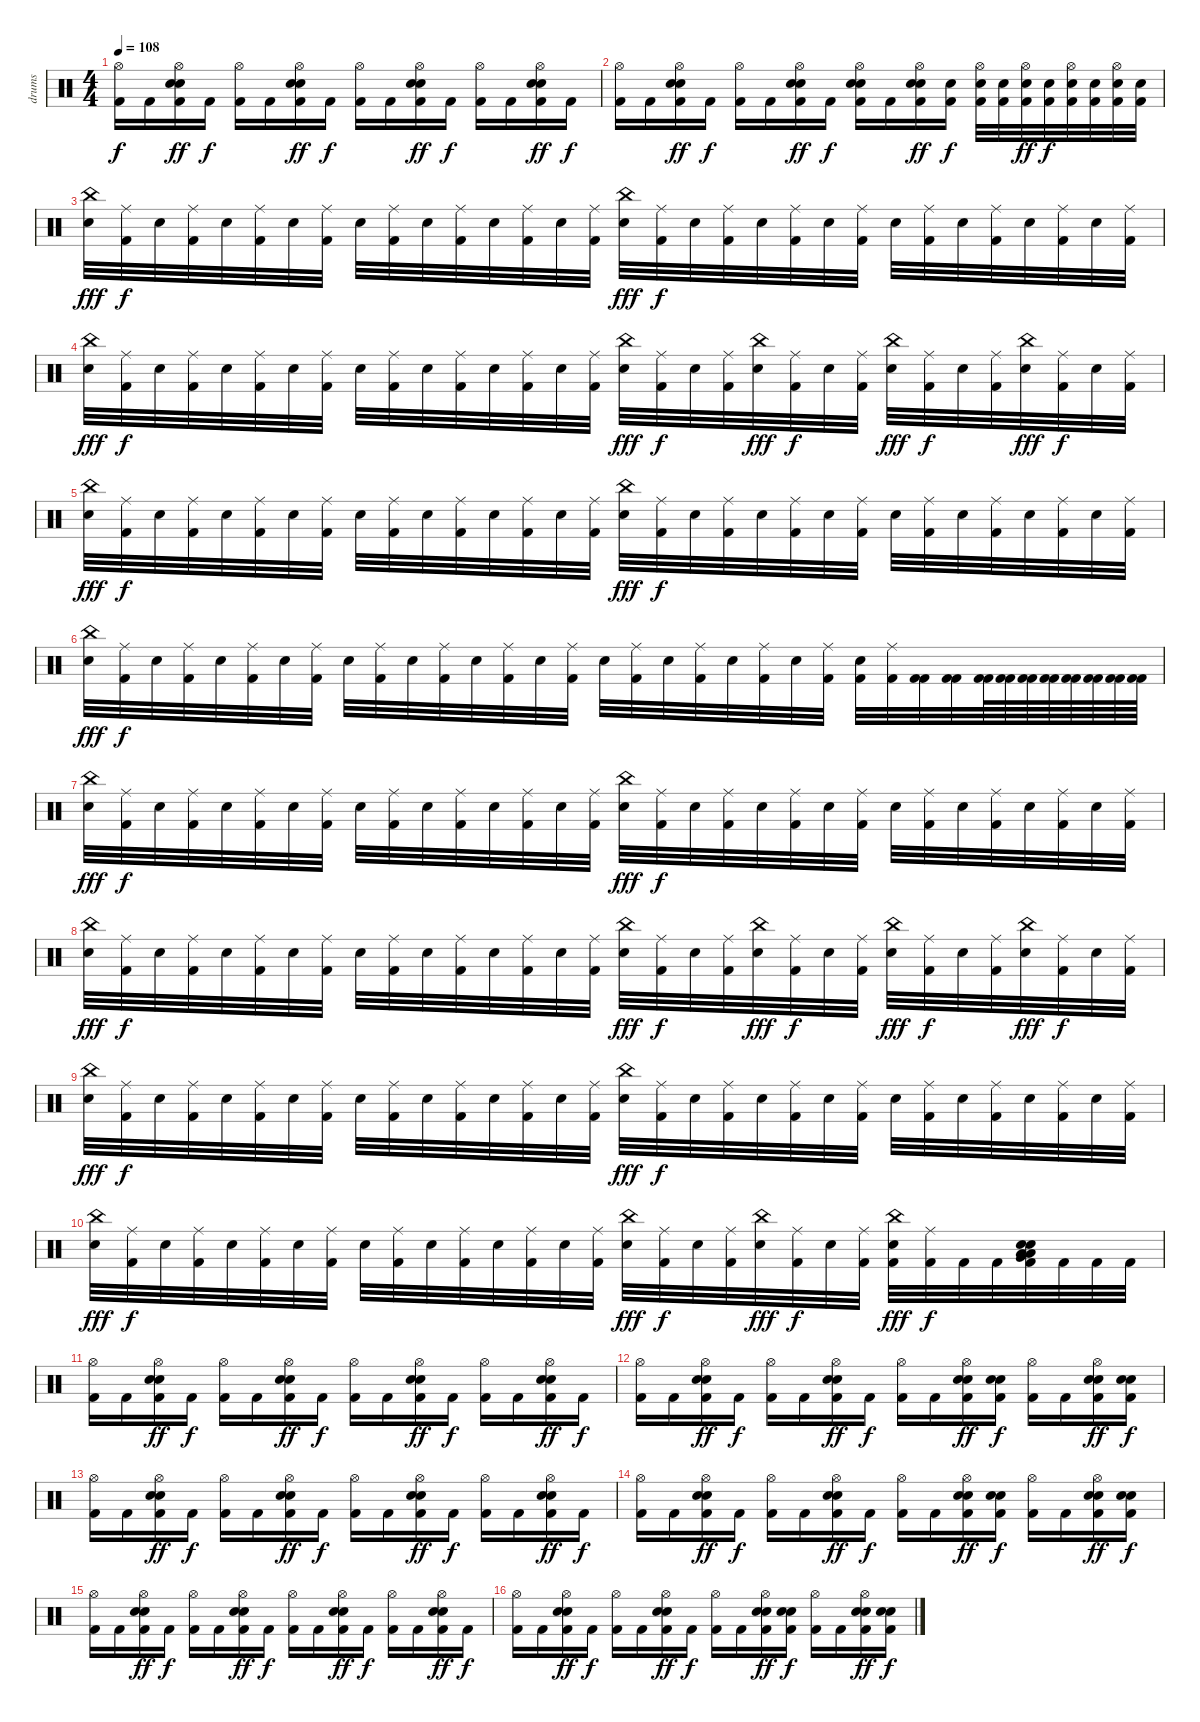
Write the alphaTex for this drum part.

\track ("drums" "drums") {instrument percussion}
\staff {score}
\articulation defaults
\ts (4 4)
\tempo 108
\clef neutral
\ks c
("Hi-Hat (open)" "Kick (hit) 2").16{dy f} "Kick (hit) 2".16 ("Electric Snare (hit)" "Hand Clap (hit)" "Hi-Hat (open)" "Kick (hit) 2").16{dy ff} "Kick (hit) 2".16{dy f} ("Hi-Hat (open)" "Kick (hit) 2").16 "Kick (hit) 2".16 ("Electric Snare (hit)" "Hand Clap (hit)" "Hi-Hat (open)" "Kick (hit) 2").16{dy ff} "Kick (hit) 2".16{dy f} ("Hi-Hat (open)" "Kick (hit) 2").16 "Kick (hit) 2".16 ("Electric Snare (hit)" "Hand Clap (hit)" "Hi-Hat (open)" "Kick (hit) 2").16{dy ff} "Kick (hit) 2".16{dy f} ("Hi-Hat (open)" "Kick (hit) 2").16 "Kick (hit) 2".16 ("Electric Snare (hit)" "Hand Clap (hit)" "Hi-Hat (open)" "Kick (hit) 2").16{dy ff} "Kick (hit) 2".16{dy f} |
("Hi-Hat (open)" "Kick (hit) 2").16 "Kick (hit) 2".16 ("Electric Snare (hit)" "Hand Clap (hit)" "Hi-Hat (open)" "Kick (hit) 2").16{dy ff} "Kick (hit) 2".16{dy f} ("Hi-Hat (open)" "Kick (hit) 2").16 "Kick (hit) 2".16 ("Electric Snare (hit)" "Hand Clap (hit)" "Hi-Hat (open)" "Kick (hit) 2").16{dy ff} "Kick (hit) 2".16{dy f} ("Electric Snare (hit)" "Snare (hit) 2" "Hi-Hat (open)" "Kick (hit) 2").16 "Kick (hit) 2".16 ("Electric Snare (hit)" "Hand Clap (hit)" "Hi-Hat (open)" "Kick (hit) 2").16{dy ff} ("Electric Snare (hit)" "Kick (hit) 2").16{dy f} ("Electric Snare (hit)" "Hi-Hat (open)" "Kick (hit) 2").32 ("Electric Snare (hit)" "Kick (hit) 2").32 ("Electric Snare (hit)" "Hi-Hat (open)" "Kick (hit) 2").32{dy ff} ("Electric Snare (hit)" "Kick (hit) 2").32{dy f} ("Electric Snare (hit)" "Hi-Hat (open)" "Kick (hit) 2").32 ("Electric Snare (hit)" "Kick (hit) 2").32 ("Electric Snare (hit)" "Hi-Hat (open)" "Kick (hit) 2").32 ("Electric Snare (hit)" "Kick (hit) 2").32 |
("Electric Snare (hit)" "China (hit)").32{dy fff} ("Ride (middle)" "Kick (hit) 2").32{dy f} "Electric Snare (hit)".32 ("Ride (middle)" "Kick (hit) 2").32 "Electric Snare (hit)".32 ("Ride (middle)" "Kick (hit) 2").32 "Electric Snare (hit)".32 ("Ride (middle)" "Kick (hit) 2").32 "Electric Snare (hit)".32 ("Ride (middle)" "Kick (hit) 2").32 "Electric Snare (hit)".32 ("Ride (middle)" "Kick (hit) 2").32 "Electric Snare (hit)".32 ("Ride (middle)" "Kick (hit) 2").32 "Electric Snare (hit)".32 ("Ride (middle)" "Kick (hit) 2").32 ("Electric Snare (hit)" "China (hit)").32{dy fff} ("Ride (middle)" "Kick (hit) 2").32{dy f} "Electric Snare (hit)".32 ("Ride (middle)" "Kick (hit) 2").32 "Electric Snare (hit)".32 ("Ride (middle)" "Kick (hit) 2").32 "Electric Snare (hit)".32 ("Ride (middle)" "Kick (hit) 2").32 "Electric Snare (hit)".32 ("Ride (middle)" "Kick (hit) 2").32 "Electric Snare (hit)".32 ("Ride (middle)" "Kick (hit) 2").32 "Electric Snare (hit)".32 ("Ride (middle)" "Kick (hit) 2").32 "Electric Snare (hit)".32 ("Ride (middle)" "Kick (hit) 2").32 |
("Electric Snare (hit)" "China (hit)").32{dy fff} ("Ride (middle)" "Kick (hit) 2").32{dy f} "Electric Snare (hit)".32 ("Ride (middle)" "Kick (hit) 2").32 "Electric Snare (hit)".32 ("Ride (middle)" "Kick (hit) 2").32 "Electric Snare (hit)".32 ("Ride (middle)" "Kick (hit) 2").32 "Electric Snare (hit)".32 ("Ride (middle)" "Kick (hit) 2").32 "Electric Snare (hit)".32 ("Ride (middle)" "Kick (hit) 2").32 "Electric Snare (hit)".32 ("Ride (middle)" "Kick (hit) 2").32 "Electric Snare (hit)".32 ("Ride (middle)" "Kick (hit) 2").32 ("Electric Snare (hit)" "China (hit)").32{dy fff} ("Ride (middle)" "Kick (hit) 2").32{dy f} "Electric Snare (hit)".32 ("Ride (middle)" "Kick (hit) 2").32 ("Electric Snare (hit)" "China (hit)").32{dy fff} ("Ride (middle)" "Kick (hit) 2").32{dy f} "Electric Snare (hit)".32 ("Ride (middle)" "Kick (hit) 2").32 ("Electric Snare (hit)" "China (hit)").32{dy fff} ("Ride (middle)" "Kick (hit) 2").32{dy f} "Electric Snare (hit)".32 ("Ride (middle)" "Kick (hit) 2").32 ("Electric Snare (hit)" "China (hit)").32{dy fff} ("Ride (middle)" "Kick (hit) 2").32{dy f} "Electric Snare (hit)".32 ("Ride (middle)" "Kick (hit) 2").32 |
("Electric Snare (hit)" "China (hit)").32{dy fff} ("Ride (middle)" "Kick (hit) 2").32{dy f} "Electric Snare (hit)".32 ("Ride (middle)" "Kick (hit) 2").32 "Electric Snare (hit)".32 ("Ride (middle)" "Kick (hit) 2").32 "Electric Snare (hit)".32 ("Ride (middle)" "Kick (hit) 2").32 "Electric Snare (hit)".32 ("Ride (middle)" "Kick (hit) 2").32 "Electric Snare (hit)".32 ("Ride (middle)" "Kick (hit) 2").32 "Electric Snare (hit)".32 ("Ride (middle)" "Kick (hit) 2").32 "Electric Snare (hit)".32 ("Ride (middle)" "Kick (hit) 2").32 ("Electric Snare (hit)" "China (hit)").32{dy fff} ("Ride (middle)" "Kick (hit) 2").32{dy f} "Electric Snare (hit)".32 ("Ride (middle)" "Kick (hit) 2").32 "Electric Snare (hit)".32 ("Ride (middle)" "Kick (hit) 2").32 "Electric Snare (hit)".32 ("Ride (middle)" "Kick (hit) 2").32 "Electric Snare (hit)".32 ("Ride (middle)" "Kick (hit) 2").32 "Electric Snare (hit)".32 ("Ride (middle)" "Kick (hit) 2").32 "Electric Snare (hit)".32 ("Ride (middle)" "Kick (hit) 2").32 "Electric Snare (hit)".32 ("Ride (middle)" "Kick (hit) 2").32 |
("Electric Snare (hit)" "China (hit)").32{dy fff} ("Ride (middle)" "Kick (hit) 2").32{dy f} "Electric Snare (hit)".32 ("Ride (middle)" "Kick (hit) 2").32 "Electric Snare (hit)".32 ("Ride (middle)" "Kick (hit) 2").32 "Electric Snare (hit)".32 ("Ride (middle)" "Kick (hit) 2").32 "Electric Snare (hit)".32 ("Ride (middle)" "Kick (hit) 2").32 "Electric Snare (hit)".32 ("Ride (middle)" "Kick (hit) 2").32 "Electric Snare (hit)".32 ("Ride (middle)" "Kick (hit) 2").32 "Electric Snare (hit)".32 ("Ride (middle)" "Kick (hit) 2").32 "Electric Snare (hit)".32 ("Ride (middle)" "Kick (hit) 2").32 "Electric Snare (hit)".32 ("Ride (middle)" "Kick (hit) 2").32 "Electric Snare (hit)".32 ("Ride (middle)" "Kick (hit) 2").32 "Electric Snare (hit)".32 ("Ride (middle)" "Kick (hit) 2").32 ("Electric Snare (hit)" "Kick (hit) 2").32 ("Ride (middle)" "Kick (hit) 2").32 ("Kick (hit) 2" "Kick (hit) 2").32 ("Kick (hit) 2" "Kick (hit) 2").32 ("Kick (hit) 2" "Kick (hit) 2").64 ("Kick (hit) 2" "Kick (hit) 2").64 ("Kick (hit) 2" "Kick (hit) 2").64 ("Kick (hit) 2" "Kick (hit) 2").64 ("Kick (hit) 2" "Kick (hit) 2").64 ("Kick (hit) 2" "Kick (hit) 2").64 ("Kick (hit) 2" "Kick (hit) 2").64 ("Kick (hit) 2" "Kick (hit) 2").64 |
("Electric Snare (hit)" "China (hit)").32{dy fff} ("Ride (middle)" "Kick (hit) 2").32{dy f} "Electric Snare (hit)".32 ("Ride (middle)" "Kick (hit) 2").32 "Electric Snare (hit)".32 ("Ride (middle)" "Kick (hit) 2").32 "Electric Snare (hit)".32 ("Ride (middle)" "Kick (hit) 2").32 "Electric Snare (hit)".32 ("Ride (middle)" "Kick (hit) 2").32 "Electric Snare (hit)".32 ("Ride (middle)" "Kick (hit) 2").32 "Electric Snare (hit)".32 ("Ride (middle)" "Kick (hit) 2").32 "Electric Snare (hit)".32 ("Ride (middle)" "Kick (hit) 2").32 ("Electric Snare (hit)" "China (hit)").32{dy fff} ("Ride (middle)" "Kick (hit) 2").32{dy f} "Electric Snare (hit)".32 ("Ride (middle)" "Kick (hit) 2").32 "Electric Snare (hit)".32 ("Ride (middle)" "Kick (hit) 2").32 "Electric Snare (hit)".32 ("Ride (middle)" "Kick (hit) 2").32 "Electric Snare (hit)".32 ("Ride (middle)" "Kick (hit) 2").32 "Electric Snare (hit)".32 ("Ride (middle)" "Kick (hit) 2").32 "Electric Snare (hit)".32 ("Ride (middle)" "Kick (hit) 2").32 "Electric Snare (hit)".32 ("Ride (middle)" "Kick (hit) 2").32 |
("Electric Snare (hit)" "China (hit)").32{dy fff} ("Ride (middle)" "Kick (hit) 2").32{dy f} "Electric Snare (hit)".32 ("Ride (middle)" "Kick (hit) 2").32 "Electric Snare (hit)".32 ("Ride (middle)" "Kick (hit) 2").32 "Electric Snare (hit)".32 ("Ride (middle)" "Kick (hit) 2").32 "Electric Snare (hit)".32 ("Ride (middle)" "Kick (hit) 2").32 "Electric Snare (hit)".32 ("Ride (middle)" "Kick (hit) 2").32 "Electric Snare (hit)".32 ("Ride (middle)" "Kick (hit) 2").32 "Electric Snare (hit)".32 ("Ride (middle)" "Kick (hit) 2").32 ("Electric Snare (hit)" "China (hit)").32{dy fff} ("Ride (middle)" "Kick (hit) 2").32{dy f} "Electric Snare (hit)".32 ("Ride (middle)" "Kick (hit) 2").32 ("Electric Snare (hit)" "China (hit)").32{dy fff} ("Ride (middle)" "Kick (hit) 2").32{dy f} "Electric Snare (hit)".32 ("Ride (middle)" "Kick (hit) 2").32 ("Electric Snare (hit)" "China (hit)").32{dy fff} ("Ride (middle)" "Kick (hit) 2").32{dy f} "Electric Snare (hit)".32 ("Ride (middle)" "Kick (hit) 2").32 ("Electric Snare (hit)" "China (hit)").32{dy fff} ("Ride (middle)" "Kick (hit) 2").32{dy f} "Electric Snare (hit)".32 ("Ride (middle)" "Kick (hit) 2").32 |
("Electric Snare (hit)" "China (hit)").32{dy fff} ("Ride (middle)" "Kick (hit) 2").32{dy f} "Electric Snare (hit)".32 ("Ride (middle)" "Kick (hit) 2").32 "Electric Snare (hit)".32 ("Ride (middle)" "Kick (hit) 2").32 "Electric Snare (hit)".32 ("Ride (middle)" "Kick (hit) 2").32 "Electric Snare (hit)".32 ("Ride (middle)" "Kick (hit) 2").32 "Electric Snare (hit)".32 ("Ride (middle)" "Kick (hit) 2").32 "Electric Snare (hit)".32 ("Ride (middle)" "Kick (hit) 2").32 "Electric Snare (hit)".32 ("Ride (middle)" "Kick (hit) 2").32 ("Electric Snare (hit)" "China (hit)").32{dy fff} ("Ride (middle)" "Kick (hit) 2").32{dy f} "Electric Snare (hit)".32 ("Ride (middle)" "Kick (hit) 2").32 "Electric Snare (hit)".32 ("Ride (middle)" "Kick (hit) 2").32 "Electric Snare (hit)".32 ("Ride (middle)" "Kick (hit) 2").32 "Electric Snare (hit)".32 ("Ride (middle)" "Kick (hit) 2").32 "Electric Snare (hit)".32 ("Ride (middle)" "Kick (hit) 2").32 "Electric Snare (hit)".32 ("Ride (middle)" "Kick (hit) 2").32 "Electric Snare (hit)".32 ("Ride (middle)" "Kick (hit) 2").32 |
("Electric Snare (hit)" "China (hit)").32{dy fff} ("Ride (middle)" "Kick (hit) 2").32{dy f} "Electric Snare (hit)".32 ("Ride (middle)" "Kick (hit) 2").32 "Electric Snare (hit)".32 ("Ride (middle)" "Kick (hit) 2").32 "Electric Snare (hit)".32 ("Ride (middle)" "Kick (hit) 2").32 "Electric Snare (hit)".32 ("Ride (middle)" "Kick (hit) 2").32 "Electric Snare (hit)".32 ("Ride (middle)" "Kick (hit) 2").32 "Electric Snare (hit)".32 ("Ride (middle)" "Kick (hit) 2").32 "Electric Snare (hit)".32 ("Ride (middle)" "Kick (hit) 2").32 ("Electric Snare (hit)" "China (hit)").32{dy fff} ("Ride (middle)" "Kick (hit) 2").32{dy f} "Electric Snare (hit)".32 ("Ride (middle)" "Kick (hit) 2").32 ("Electric Snare (hit)" "China (hit)").32{dy fff} ("Ride (middle)" "Kick (hit) 2").32{dy f} "Electric Snare (hit)".32 ("Ride (middle)" "Kick (hit) 2").32 ("Electric Snare (hit)" "China (hit)" "Kick (hit) 2").32{dy fff} ("Ride (middle)" "Kick (hit) 2").32{dy f} "Kick (hit) 2".32 "Kick (hit) 2".32 ("Electric Snare (hit)" "Electric Snare (hit)" "Very Low Tom (hit)" "Low Floor Tom (hit)" "Low Floor Tom (hit)" "Kick (hit) 2").32 "Kick (hit) 2".32 "Kick (hit) 2".32 "Kick (hit) 2".32 |
("Hi-Hat (open)" "Kick (hit) 2").16 "Kick (hit) 2".16 ("Electric Snare (hit)" "Hand Clap (hit)" "Hi-Hat (open)" "Kick (hit) 2").16{dy ff} "Kick (hit) 2".16{dy f} ("Hi-Hat (open)" "Kick (hit) 2").16 "Kick (hit) 2".16 ("Electric Snare (hit)" "Hand Clap (hit)" "Hi-Hat (open)" "Kick (hit) 2").16{dy ff} "Kick (hit) 2".16{dy f} ("Hi-Hat (open)" "Kick (hit) 2").16 "Kick (hit) 2".16 ("Electric Snare (hit)" "Hand Clap (hit)" "Hi-Hat (open)" "Kick (hit) 2").16{dy ff} "Kick (hit) 2".16{dy f} ("Hi-Hat (open)" "Kick (hit) 2").16 "Kick (hit) 2".16 ("Electric Snare (hit)" "Hand Clap (hit)" "Hi-Hat (open)" "Kick (hit) 2").16{dy ff} "Kick (hit) 2".16{dy f} |
("Hi-Hat (open)" "Kick (hit) 2").16 "Kick (hit) 2".16 ("Electric Snare (hit)" "Hand Clap (hit)" "Hi-Hat (open)" "Kick (hit) 2").16{dy ff} "Kick (hit) 2".16{dy f} ("Hi-Hat (open)" "Kick (hit) 2").16 "Kick (hit) 2".16 ("Electric Snare (hit)" "Hand Clap (hit)" "Hi-Hat (open)" "Kick (hit) 2").16{dy ff} "Kick (hit) 2".16{dy f} ("Hi-Hat (open)" "Kick (hit) 2").16 "Kick (hit) 2".16 ("Electric Snare (hit)" "Hand Clap (hit)" "Hi-Hat (open)" "Kick (hit) 2").16{dy ff} ("Electric Snare (hit)" "Hand Clap (hit)" "Kick (hit) 2").16{dy f} ("Hi-Hat (open)" "Kick (hit) 2").16 "Kick (hit) 2".16 ("Electric Snare (hit)" "Hand Clap (hit)" "Hi-Hat (open)" "Kick (hit) 2").16{dy ff} ("Electric Snare (hit)" "Hand Clap (hit)" "Kick (hit) 2").16{dy f} |
("Hi-Hat (open)" "Kick (hit) 2").16 "Kick (hit) 2".16 ("Electric Snare (hit)" "Hand Clap (hit)" "Hi-Hat (open)" "Kick (hit) 2").16{dy ff} "Kick (hit) 2".16{dy f} ("Hi-Hat (open)" "Kick (hit) 2").16 "Kick (hit) 2".16 ("Electric Snare (hit)" "Hand Clap (hit)" "Hi-Hat (open)" "Kick (hit) 2").16{dy ff} "Kick (hit) 2".16{dy f} ("Hi-Hat (open)" "Kick (hit) 2").16 "Kick (hit) 2".16 ("Electric Snare (hit)" "Hand Clap (hit)" "Hi-Hat (open)" "Kick (hit) 2").16{dy ff} "Kick (hit) 2".16{dy f} ("Hi-Hat (open)" "Kick (hit) 2").16 "Kick (hit) 2".16 ("Electric Snare (hit)" "Hand Clap (hit)" "Hi-Hat (open)" "Kick (hit) 2").16{dy ff} "Kick (hit) 2".16{dy f} |
("Hi-Hat (open)" "Kick (hit) 2").16 "Kick (hit) 2".16 ("Electric Snare (hit)" "Hand Clap (hit)" "Hi-Hat (open)" "Kick (hit) 2").16{dy ff} "Kick (hit) 2".16{dy f} ("Hi-Hat (open)" "Kick (hit) 2").16 "Kick (hit) 2".16 ("Electric Snare (hit)" "Hand Clap (hit)" "Hi-Hat (open)" "Kick (hit) 2").16{dy ff} "Kick (hit) 2".16{dy f} ("Hi-Hat (open)" "Kick (hit) 2").16 "Kick (hit) 2".16 ("Electric Snare (hit)" "Hand Clap (hit)" "Hi-Hat (open)" "Kick (hit) 2").16{dy ff} ("Electric Snare (hit)" "Hand Clap (hit)" "Kick (hit) 2").16{dy f} ("Hi-Hat (open)" "Kick (hit) 2").16 "Kick (hit) 2".16 ("Electric Snare (hit)" "Hand Clap (hit)" "Hi-Hat (open)" "Kick (hit) 2").16{dy ff} ("Electric Snare (hit)" "Hand Clap (hit)" "Kick (hit) 2").16{dy f} |
("Hi-Hat (open)" "Kick (hit) 2").16 "Kick (hit) 2".16 ("Electric Snare (hit)" "Hand Clap (hit)" "Hi-Hat (open)" "Kick (hit) 2").16{dy ff} "Kick (hit) 2".16{dy f} ("Hi-Hat (open)" "Kick (hit) 2").16 "Kick (hit) 2".16 ("Electric Snare (hit)" "Hand Clap (hit)" "Hi-Hat (open)" "Kick (hit) 2").16{dy ff} "Kick (hit) 2".16{dy f} ("Hi-Hat (open)" "Kick (hit) 2").16 "Kick (hit) 2".16 ("Electric Snare (hit)" "Hand Clap (hit)" "Hi-Hat (open)" "Kick (hit) 2").16{dy ff} "Kick (hit) 2".16{dy f} ("Hi-Hat (open)" "Kick (hit) 2").16 "Kick (hit) 2".16 ("Electric Snare (hit)" "Hand Clap (hit)" "Hi-Hat (open)" "Kick (hit) 2").16{dy ff} "Kick (hit) 2".16{dy f} |
("Hi-Hat (open)" "Kick (hit) 2").16 "Kick (hit) 2".16 ("Electric Snare (hit)" "Hand Clap (hit)" "Hi-Hat (open)" "Kick (hit) 2").16{dy ff} "Kick (hit) 2".16{dy f} ("Hi-Hat (open)" "Kick (hit) 2").16 "Kick (hit) 2".16 ("Electric Snare (hit)" "Hand Clap (hit)" "Hi-Hat (open)" "Kick (hit) 2").16{dy ff} "Kick (hit) 2".16{dy f} ("Hi-Hat (open)" "Kick (hit) 2").16 "Kick (hit) 2".16 ("Electric Snare (hit)" "Hand Clap (hit)" "Hi-Hat (open)" "Kick (hit) 2").16{dy ff} ("Electric Snare (hit)" "Hand Clap (hit)" "Kick (hit) 2").16{dy f} ("Hi-Hat (open)" "Kick (hit) 2").16 "Kick (hit) 2".16 ("Electric Snare (hit)" "Hand Clap (hit)" "Hi-Hat (open)" "Kick (hit) 2").16{dy ff} ("Electric Snare (hit)" "Hand Clap (hit)" "Kick (hit) 2").16{dy f}
